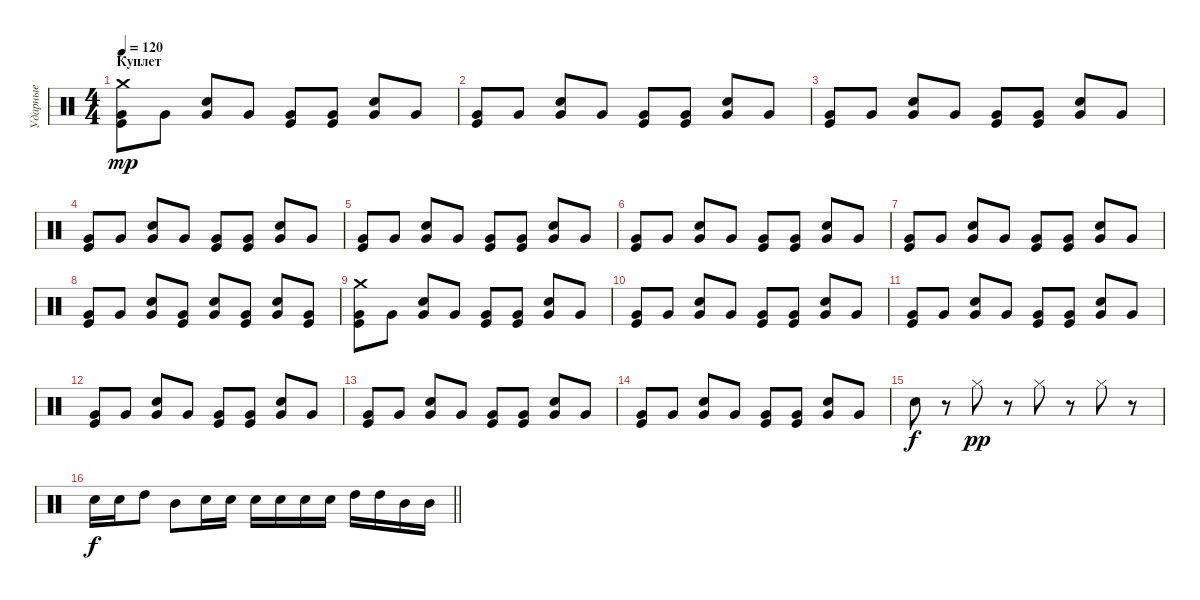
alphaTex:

\track ("Ударные" "Ударные") {instrument percussion}
\staff {score}
\articulation defaults
\ts (4 4)
\section ("" "Куплет")
\tempo 120
\clef neutral
\ks c
("Very Low Tom (hit)" "Kick (hit)" "Crash medium (hit)").8{dy mp} "Very Low Tom (hit)".8 ("Very Low Tom (hit)" "Electric Snare (hit)").8 "Very Low Tom (hit)".8 ("Very Low Tom (hit)" "Kick (hit)").8 ("Very Low Tom (hit)" "Kick (hit)").8 ("Very Low Tom (hit)" "Electric Snare (hit)").8 "Very Low Tom (hit)".8 |
("Very Low Tom (hit)" "Kick (hit)").8 "Very Low Tom (hit)".8 ("Very Low Tom (hit)" "Electric Snare (hit)").8 "Very Low Tom (hit)".8 ("Very Low Tom (hit)" "Kick (hit)").8 ("Very Low Tom (hit)" "Kick (hit)").8 ("Very Low Tom (hit)" "Electric Snare (hit)").8 "Very Low Tom (hit)".8 |
("Very Low Tom (hit)" "Kick (hit)").8 "Very Low Tom (hit)".8 ("Very Low Tom (hit)" "Electric Snare (hit)").8 "Very Low Tom (hit)".8 ("Very Low Tom (hit)" "Kick (hit)").8 ("Very Low Tom (hit)" "Kick (hit)").8 ("Very Low Tom (hit)" "Electric Snare (hit)").8 "Very Low Tom (hit)".8 |
("Very Low Tom (hit)" "Kick (hit)").8 "Very Low Tom (hit)".8 ("Very Low Tom (hit)" "Electric Snare (hit)").8 "Very Low Tom (hit)".8 ("Very Low Tom (hit)" "Kick (hit)").8 ("Very Low Tom (hit)" "Kick (hit)").8 ("Very Low Tom (hit)" "Electric Snare (hit)").8 "Very Low Tom (hit)".8 |
("Very Low Tom (hit)" "Kick (hit)").8 "Very Low Tom (hit)".8 ("Very Low Tom (hit)" "Electric Snare (hit)").8 "Very Low Tom (hit)".8 ("Very Low Tom (hit)" "Kick (hit)").8 ("Very Low Tom (hit)" "Kick (hit)").8 ("Very Low Tom (hit)" "Electric Snare (hit)").8 "Very Low Tom (hit)".8 |
("Very Low Tom (hit)" "Kick (hit)").8 "Very Low Tom (hit)".8 ("Very Low Tom (hit)" "Electric Snare (hit)").8 "Very Low Tom (hit)".8 ("Very Low Tom (hit)" "Kick (hit)").8 ("Very Low Tom (hit)" "Kick (hit)").8 ("Very Low Tom (hit)" "Electric Snare (hit)").8 "Very Low Tom (hit)".8 |
("Very Low Tom (hit)" "Kick (hit)").8 "Very Low Tom (hit)".8 ("Very Low Tom (hit)" "Electric Snare (hit)").8 "Very Low Tom (hit)".8 ("Very Low Tom (hit)" "Kick (hit)").8 ("Very Low Tom (hit)" "Kick (hit)").8 ("Very Low Tom (hit)" "Electric Snare (hit)").8 "Very Low Tom (hit)".8 |
("Very Low Tom (hit)" "Kick (hit)").8 "Very Low Tom (hit)".8 ("Very Low Tom (hit)" "Electric Snare (hit)").8 ("Very Low Tom (hit)" "Kick (hit)").8 ("Very Low Tom (hit)" "Electric Snare (hit)").8 ("Very Low Tom (hit)" "Kick (hit)").8 ("Very Low Tom (hit)" "Electric Snare (hit)").8 ("Very Low Tom (hit)" "Kick (hit)").8 |
("Very Low Tom (hit)" "Kick (hit)" "Crash medium (hit)").8 "Very Low Tom (hit)".8 ("Very Low Tom (hit)" "Electric Snare (hit)").8 "Very Low Tom (hit)".8 ("Very Low Tom (hit)" "Kick (hit)").8 ("Very Low Tom (hit)" "Kick (hit)").8 ("Very Low Tom (hit)" "Electric Snare (hit)").8 "Very Low Tom (hit)".8 |
("Very Low Tom (hit)" "Kick (hit)").8 "Very Low Tom (hit)".8 ("Very Low Tom (hit)" "Electric Snare (hit)").8 "Very Low Tom (hit)".8 ("Very Low Tom (hit)" "Kick (hit)").8 ("Very Low Tom (hit)" "Kick (hit)").8 ("Very Low Tom (hit)" "Electric Snare (hit)").8 "Very Low Tom (hit)".8 |
("Very Low Tom (hit)" "Kick (hit)").8 "Very Low Tom (hit)".8 ("Very Low Tom (hit)" "Electric Snare (hit)").8 "Very Low Tom (hit)".8 ("Very Low Tom (hit)" "Kick (hit)").8 ("Very Low Tom (hit)" "Kick (hit)").8 ("Very Low Tom (hit)" "Electric Snare (hit)").8 "Very Low Tom (hit)".8 |
("Very Low Tom (hit)" "Kick (hit)").8 "Very Low Tom (hit)".8 ("Very Low Tom (hit)" "Electric Snare (hit)").8 "Very Low Tom (hit)".8 ("Very Low Tom (hit)" "Kick (hit)").8 ("Very Low Tom (hit)" "Kick (hit)").8 ("Very Low Tom (hit)" "Electric Snare (hit)").8 "Very Low Tom (hit)".8 |
("Very Low Tom (hit)" "Kick (hit)").8 "Very Low Tom (hit)".8 ("Very Low Tom (hit)" "Electric Snare (hit)").8 "Very Low Tom (hit)".8 ("Very Low Tom (hit)" "Kick (hit)").8 ("Very Low Tom (hit)" "Kick (hit)").8 ("Very Low Tom (hit)" "Electric Snare (hit)").8 "Very Low Tom (hit)".8 |
("Very Low Tom (hit)" "Kick (hit)").8 "Very Low Tom (hit)".8 ("Very Low Tom (hit)" "Electric Snare (hit)").8 "Very Low Tom (hit)".8 ("Very Low Tom (hit)" "Kick (hit)").8 ("Very Low Tom (hit)" "Kick (hit)").8 ("Very Low Tom (hit)" "Electric Snare (hit)").8 "Very Low Tom (hit)".8 |
"Electric Snare (hit)".8{dy f} r.8 "Hi-Hat (closed)".8{dy pp} r.8 "Hi-Hat (closed)".8 r.8 "Hi-Hat (closed)".8 r.8 |
\barLineRight lightlight "Electric Snare (hit)".16{dy f} "Electric Snare (hit)".16 "High Tom (hit)".8 "Mid Tom (hit)".8 "Electric Snare (hit)".16 "Electric Snare (hit)".16 "Electric Snare (hit)".16 "Electric Snare (hit)".16 "Electric Snare (hit)".16 "Electric Snare (hit)".16 "High Tom (hit)".16 "High Tom (hit)".16 "Mid Tom (hit)".16 "Mid Tom (hit)".16
